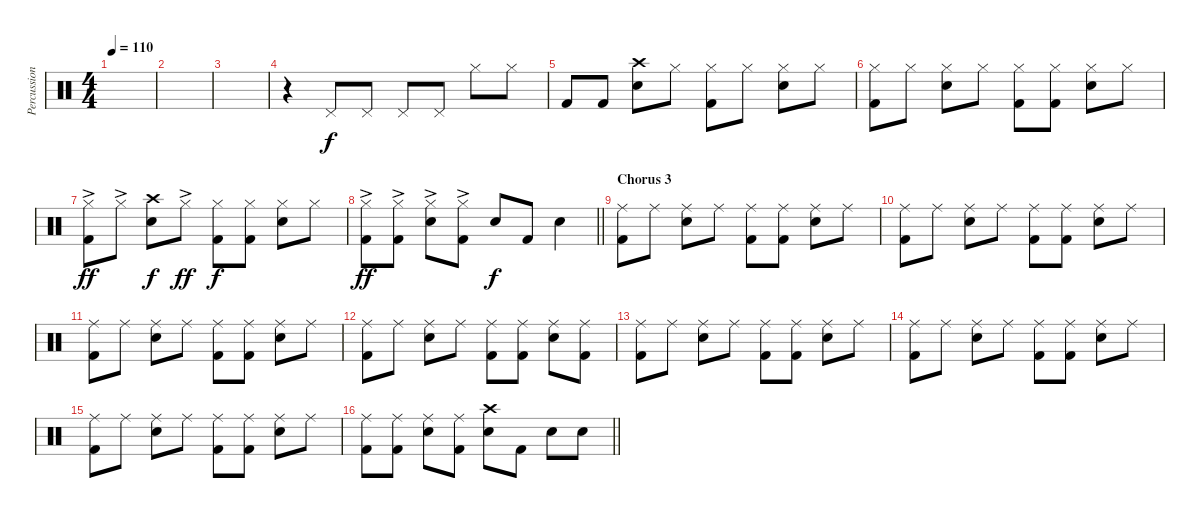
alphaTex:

\track ("Percussion" "Percussion") {instrument percussion}
\staff {score}
\articulation defaults
\ts (4 4)
\tempo 110
\clef neutral
\ks c
|
|
|
r.4 "Pedal Hi-Hat (hit)".8 "Pedal Hi-Hat (hit)".8 "Pedal Hi-Hat (hit)".8 "Pedal Hi-Hat (hit)".8 "Hi-Hat (closed)".8 "Hi-Hat (closed)".8 |
"Kick (hit) 2".8 "Kick (hit) 2".8 ("Crash high (hit)" "Snare (hit) 2").8 "Hi-Hat (closed)".8 ("Hi-Hat (closed)" "Kick (hit) 2").8 "Hi-Hat (closed)".8 ("Hi-Hat (closed)" "Snare (hit) 2").8 "Hi-Hat (closed)".8 |
("Hi-Hat (closed)" "Kick (hit) 2").8 "Hi-Hat (closed)".8 ("Hi-Hat (closed)" "Snare (hit) 2").8 "Hi-Hat (closed)".8 ("Hi-Hat (closed)" "Kick (hit) 2").8 ("Hi-Hat (closed)" "Kick (hit) 2").8 ("Hi-Hat (closed)" "Snare (hit) 2").8 "Hi-Hat (closed)".8 |
("Hi-Hat (closed)"{ac} "Kick (hit) 2").8{dy ff} "Hi-Hat (closed)"{ac}.8 ("Crash high (hit)" "Snare (hit) 2").8{dy f} "Hi-Hat (closed)"{ac}.8{dy ff} ("Hi-Hat (closed)" "Kick (hit) 2").8{dy f} ("Hi-Hat (closed)" "Kick (hit) 2").8 ("Hi-Hat (closed)" "Snare (hit) 2").8 "Hi-Hat (closed)".8 |
\barLineRight lightlight
("Hi-Hat (closed)"{ac} "Kick (hit) 2").8{dy ff} ("Hi-Hat (closed)"{ac} "Kick (hit) 2").8 ("Hi-Hat (closed)"{ac} "Snare (hit) 2").8 ("Hi-Hat (closed)"{ac} "Kick (hit) 2").8 "Snare (hit) 2".8{dy f} "Kick (hit) 2".8 "Snare (hit) 2".4 |
\section ("" "Chorus 3")
("Kick (hit) 2" "Ride (middle)").8 "Ride (middle)".8 ("Snare (hit) 2" "Ride (middle)").8 "Ride (middle)".8 ("Kick (hit) 2" "Ride (middle)").8 ("Kick (hit) 2" "Ride (middle)").8 ("Snare (hit) 2" "Ride (middle)").8 "Ride (middle)".8 |
("Kick (hit) 2" "Ride (middle)").8 "Ride (middle)".8 ("Snare (hit) 2" "Ride (middle)").8 "Ride (middle)".8 ("Kick (hit) 2" "Ride (middle)").8 ("Kick (hit) 2" "Ride (middle)").8 ("Snare (hit) 2" "Ride (middle)").8 "Ride (middle)".8 |
("Kick (hit) 2" "Ride (middle)").8 "Ride (middle)".8 ("Snare (hit) 2" "Ride (middle)").8 "Ride (middle)".8 ("Kick (hit) 2" "Ride (middle)").8 ("Kick (hit) 2" "Ride (middle)").8 ("Snare (hit) 2" "Ride (middle)").8 "Ride (middle)".8 |
("Kick (hit) 2" "Ride (middle)").8 "Ride (middle)".8 ("Snare (hit) 2" "Ride (middle)").8 "Ride (middle)".8 ("Kick (hit) 2" "Ride (middle)").8 ("Kick (hit) 2" "Ride (middle)").8 ("Snare (hit) 2" "Ride (middle)").8 ("Kick (hit) 2" "Ride (middle)").8 |
("Kick (hit) 2" "Ride (middle)").8 "Ride (middle)".8 ("Snare (hit) 2" "Ride (middle)").8 "Ride (middle)".8 ("Kick (hit) 2" "Ride (middle)").8 ("Kick (hit) 2" "Ride (middle)").8 ("Snare (hit) 2" "Ride (middle)").8 "Ride (middle)".8 |
("Kick (hit) 2" "Ride (middle)").8 "Ride (middle)".8 ("Snare (hit) 2" "Ride (middle)").8 "Ride (middle)".8 ("Kick (hit) 2" "Ride (middle)").8 ("Kick (hit) 2" "Ride (middle)").8 ("Snare (hit) 2" "Ride (middle)").8 "Ride (middle)".8 |
("Kick (hit) 2" "Ride (middle)").8 "Ride (middle)".8 ("Snare (hit) 2" "Ride (middle)").8 "Ride (middle)".8 ("Kick (hit) 2" "Ride (middle)").8 ("Kick (hit) 2" "Ride (middle)").8 ("Snare (hit) 2" "Ride (middle)").8 "Ride (middle)".8 |
\barLineRight lightlight
("Kick (hit) 2" "Ride (middle)").8 ("Kick (hit) 2" "Ride (middle)").8 ("Snare (hit) 2" "Ride (middle)").8 ("Kick (hit) 2" "Ride (middle)").8 ("Crash high (hit)" "Snare (hit) 2").8 "Kick (hit) 2".8 "Snare (hit) 2".8 "Snare (hit) 2".8
